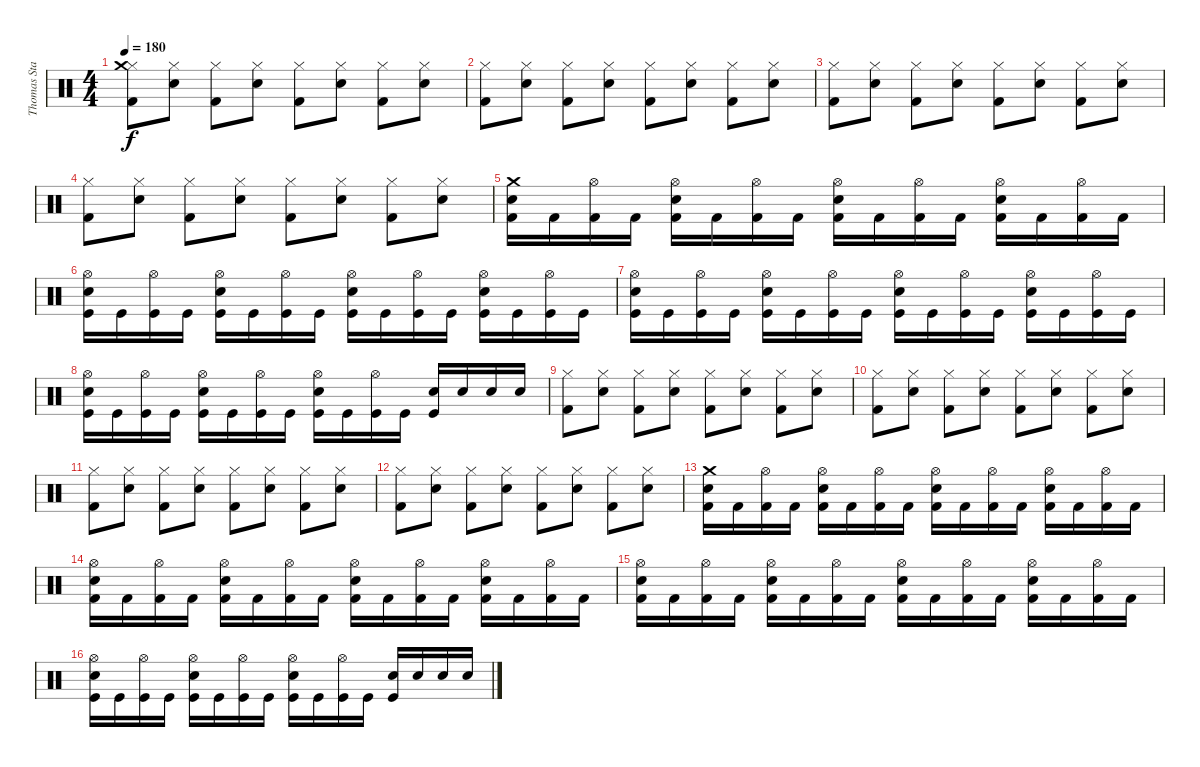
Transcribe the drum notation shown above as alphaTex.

\track ("Thomas Stauch" "Thomas Sta") {instrument percussion}
\staff {score}
\articulation defaults
\ts (4 4)
\tempo 180
\clef neutral
\ks c
("Kick (hit) 2" "Hi-Hat (closed)" "Crash medium (hit)").8{dy f} ("Snare (hit) 2" "Hi-Hat (closed)").8 ("Kick (hit) 2" "Hi-Hat (closed)").8 ("Snare (hit) 2" "Hi-Hat (closed)").8 ("Kick (hit) 2" "Hi-Hat (closed)").8 ("Snare (hit) 2" "Hi-Hat (closed)").8 ("Kick (hit) 2" "Hi-Hat (closed)").8 ("Snare (hit) 2" "Hi-Hat (closed)").8 |
("Kick (hit) 2" "Hi-Hat (closed)").8 ("Snare (hit) 2" "Hi-Hat (closed)").8 ("Kick (hit) 2" "Hi-Hat (closed)").8 ("Snare (hit) 2" "Hi-Hat (closed)").8 ("Kick (hit) 2" "Hi-Hat (closed)").8 ("Snare (hit) 2" "Hi-Hat (closed)").8 ("Kick (hit) 2" "Hi-Hat (closed)").8 ("Snare (hit) 2" "Hi-Hat (closed)").8 |
("Kick (hit) 2" "Hi-Hat (closed)").8 ("Snare (hit) 2" "Hi-Hat (closed)").8 ("Kick (hit) 2" "Hi-Hat (closed)").8 ("Snare (hit) 2" "Hi-Hat (closed)").8 ("Kick (hit) 2" "Hi-Hat (closed)").8 ("Snare (hit) 2" "Hi-Hat (closed)").8 ("Kick (hit) 2" "Hi-Hat (closed)").8 ("Snare (hit) 2" "Hi-Hat (closed)").8 |
("Kick (hit) 2" "Hi-Hat (closed)").8 ("Snare (hit) 2" "Hi-Hat (closed)").8 ("Kick (hit) 2" "Hi-Hat (closed)").8 ("Snare (hit) 2" "Hi-Hat (closed)").8 ("Kick (hit) 2" "Hi-Hat (closed)").8 ("Snare (hit) 2" "Hi-Hat (closed)").8 ("Kick (hit) 2" "Hi-Hat (closed)").8 ("Snare (hit) 2" "Hi-Hat (closed)").8 |
("Kick (hit) 2" "Snare (hit) 2" "Crash medium (hit)").16 "Kick (hit) 2".16 ("Kick (hit) 2" "Hi-Hat (open)").16 "Kick (hit) 2".16 ("Kick (hit) 2" "Snare (hit) 2" "Hi-Hat (open)").16 "Kick (hit) 2".16 ("Kick (hit) 2" "Hi-Hat (open)").16 "Kick (hit) 2".16 ("Kick (hit) 2" "Snare (hit) 2" "Hi-Hat (open)").16 "Kick (hit) 2".16 ("Kick (hit) 2" "Hi-Hat (open)").16 "Kick (hit) 2".16 ("Kick (hit) 2" "Snare (hit) 2" "Hi-Hat (open)").16 "Kick (hit) 2".16 ("Kick (hit) 2" "Hi-Hat (open)").16 "Kick (hit) 2".16 |
("Kick (hit)" "Snare (hit) 2" "Hi-Hat (open)").16 "Kick (hit)".16 ("Kick (hit)" "Hi-Hat (open)").16 "Kick (hit)".16 ("Kick (hit)" "Snare (hit) 2" "Hi-Hat (open)").16 "Kick (hit)".16 ("Kick (hit)" "Hi-Hat (open)").16 "Kick (hit)".16 ("Kick (hit)" "Snare (hit) 2" "Hi-Hat (open)").16 "Kick (hit)".16 ("Kick (hit)" "Hi-Hat (open)").16 "Kick (hit)".16 ("Kick (hit)" "Snare (hit) 2" "Hi-Hat (open)").16 "Kick (hit)".16 ("Kick (hit)" "Hi-Hat (open)").16 "Kick (hit)".16 |
("Kick (hit)" "Snare (hit) 2" "Hi-Hat (open)").16 "Kick (hit)".16 ("Kick (hit)" "Hi-Hat (open)").16 "Kick (hit)".16 ("Kick (hit)" "Snare (hit) 2" "Hi-Hat (open)").16 "Kick (hit)".16 ("Kick (hit)" "Hi-Hat (open)").16 "Kick (hit)".16 ("Kick (hit)" "Snare (hit) 2" "Hi-Hat (open)").16 "Kick (hit)".16 ("Kick (hit)" "Hi-Hat (open)").16 "Kick (hit)".16 ("Kick (hit)" "Snare (hit) 2" "Hi-Hat (open)").16 "Kick (hit)".16 ("Kick (hit)" "Hi-Hat (open)").16 "Kick (hit)".16 |
("Kick (hit)" "Snare (hit) 2" "Hi-Hat (open)").16 "Kick (hit)".16 ("Kick (hit)" "Hi-Hat (open)").16 "Kick (hit)".16 ("Kick (hit)" "Snare (hit) 2" "Hi-Hat (open)").16 "Kick (hit)".16 ("Kick (hit)" "Hi-Hat (open)").16 "Kick (hit)".16 ("Kick (hit)" "Snare (hit) 2" "Hi-Hat (open)").16 "Kick (hit)".16 ("Kick (hit)" "Hi-Hat (open)").16 "Kick (hit)".16 ("Kick (hit)" "Snare (hit) 2").16 "Snare (hit) 2".16 "Snare (hit) 2".16 "Snare (hit) 2".16 |
("Kick (hit) 2" "Hi-Hat (closed)").8 ("Snare (hit) 2" "Hi-Hat (closed)").8 ("Kick (hit) 2" "Hi-Hat (closed)").8 ("Snare (hit) 2" "Hi-Hat (closed)").8 ("Kick (hit) 2" "Hi-Hat (closed)").8 ("Snare (hit) 2" "Hi-Hat (closed)").8 ("Kick (hit) 2" "Hi-Hat (closed)").8 ("Snare (hit) 2" "Hi-Hat (closed)").8 |
("Kick (hit) 2" "Hi-Hat (closed)").8 ("Snare (hit) 2" "Hi-Hat (closed)").8 ("Kick (hit) 2" "Hi-Hat (closed)").8 ("Snare (hit) 2" "Hi-Hat (closed)").8 ("Kick (hit) 2" "Hi-Hat (closed)").8 ("Snare (hit) 2" "Hi-Hat (closed)").8 ("Kick (hit) 2" "Hi-Hat (closed)").8 ("Snare (hit) 2" "Hi-Hat (closed)").8 |
("Kick (hit) 2" "Hi-Hat (closed)").8 ("Snare (hit) 2" "Hi-Hat (closed)").8 ("Kick (hit) 2" "Hi-Hat (closed)").8 ("Snare (hit) 2" "Hi-Hat (closed)").8 ("Kick (hit) 2" "Hi-Hat (closed)").8 ("Snare (hit) 2" "Hi-Hat (closed)").8 ("Kick (hit) 2" "Hi-Hat (closed)").8 ("Snare (hit) 2" "Hi-Hat (closed)").8 |
("Kick (hit) 2" "Hi-Hat (closed)").8 ("Snare (hit) 2" "Hi-Hat (closed)").8 ("Kick (hit) 2" "Hi-Hat (closed)").8 ("Snare (hit) 2" "Hi-Hat (closed)").8 ("Kick (hit) 2" "Hi-Hat (closed)").8 ("Snare (hit) 2" "Hi-Hat (closed)").8 ("Kick (hit) 2" "Hi-Hat (closed)").8 ("Snare (hit) 2" "Hi-Hat (closed)").8 |
("Kick (hit) 2" "Snare (hit) 2" "Crash medium (hit)").16 "Kick (hit) 2".16 ("Kick (hit) 2" "Hi-Hat (open)").16 "Kick (hit) 2".16 ("Kick (hit) 2" "Snare (hit) 2" "Hi-Hat (open)").16 "Kick (hit) 2".16 ("Kick (hit) 2" "Hi-Hat (open)").16 "Kick (hit) 2".16 ("Kick (hit) 2" "Snare (hit) 2" "Hi-Hat (open)").16 "Kick (hit) 2".16 ("Kick (hit) 2" "Hi-Hat (open)").16 "Kick (hit) 2".16 ("Kick (hit) 2" "Snare (hit) 2" "Hi-Hat (open)").16 "Kick (hit) 2".16 ("Kick (hit) 2" "Hi-Hat (open)").16 "Kick (hit) 2".16 |
("Kick (hit) 2" "Snare (hit) 2" "Hi-Hat (open)").16 "Kick (hit) 2".16 ("Kick (hit) 2" "Hi-Hat (open)").16 "Kick (hit) 2".16 ("Kick (hit) 2" "Snare (hit) 2" "Hi-Hat (open)").16 "Kick (hit) 2".16 ("Kick (hit) 2" "Hi-Hat (open)").16 "Kick (hit) 2".16 ("Kick (hit) 2" "Snare (hit) 2" "Hi-Hat (open)").16 "Kick (hit) 2".16 ("Kick (hit) 2" "Hi-Hat (open)").16 "Kick (hit) 2".16 ("Kick (hit) 2" "Snare (hit) 2" "Hi-Hat (open)").16 "Kick (hit) 2".16 ("Kick (hit) 2" "Hi-Hat (open)").16 "Kick (hit) 2".16 |
("Kick (hit) 2" "Snare (hit) 2" "Hi-Hat (open)").16 "Kick (hit) 2".16 ("Kick (hit) 2" "Hi-Hat (open)").16 "Kick (hit) 2".16 ("Kick (hit) 2" "Snare (hit) 2" "Hi-Hat (open)").16 "Kick (hit) 2".16 ("Kick (hit) 2" "Hi-Hat (open)").16 "Kick (hit) 2".16 ("Kick (hit) 2" "Snare (hit) 2" "Hi-Hat (open)").16 "Kick (hit) 2".16 ("Kick (hit) 2" "Hi-Hat (open)").16 "Kick (hit) 2".16 ("Kick (hit) 2" "Snare (hit) 2" "Hi-Hat (open)").16 "Kick (hit) 2".16 ("Kick (hit) 2" "Hi-Hat (open)").16 "Kick (hit) 2".16 |
("Kick (hit)" "Snare (hit) 2" "Hi-Hat (open)").16 "Kick (hit)".16 ("Kick (hit)" "Hi-Hat (open)").16 "Kick (hit)".16 ("Kick (hit)" "Snare (hit) 2" "Hi-Hat (open)").16 "Kick (hit)".16 ("Kick (hit)" "Hi-Hat (open)").16 "Kick (hit)".16 ("Kick (hit)" "Snare (hit) 2" "Hi-Hat (open)").16 "Kick (hit)".16 ("Kick (hit)" "Hi-Hat (open)").16 "Kick (hit)".16 ("Kick (hit)" "Electric Snare (hit)").16 "Electric Snare (hit)".16 "Electric Snare (hit)".16 "Electric Snare (hit)".16
